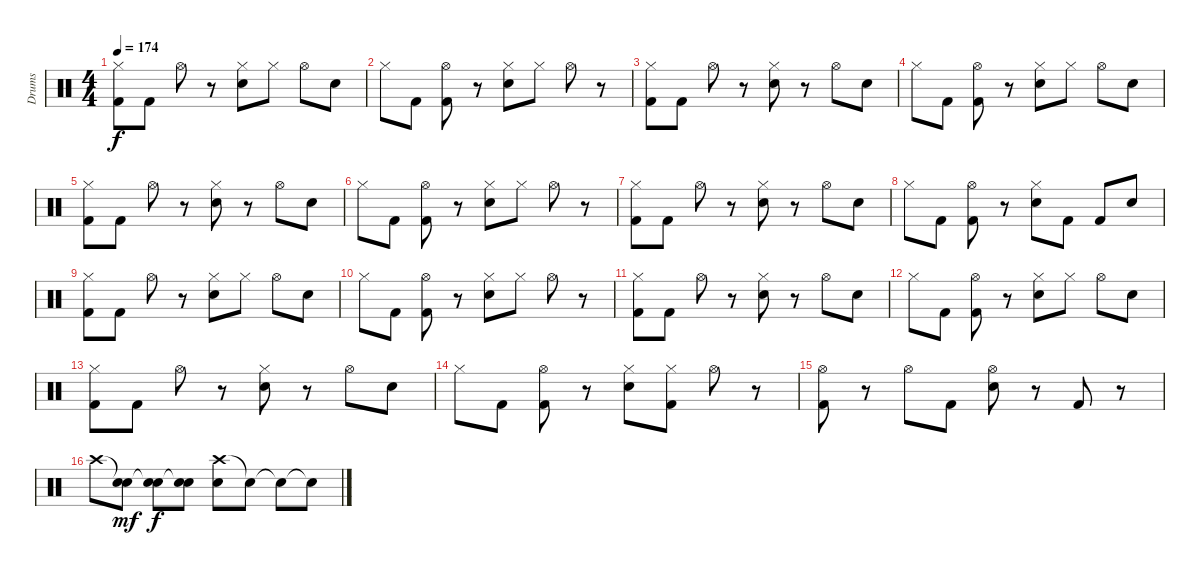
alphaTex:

\track ("Drums" "Drums") {instrument percussion}
\staff {score}
\articulation defaults
\ts (4 4)
\tempo 174
\clef neutral
\ks c
("Hi-Hat (closed)" "Kick (hit) 2").8{dy f} "Kick (hit) 2".8 "Hi-Hat (open)".8 r.8 ("Hi-Hat (closed)" "Electric Snare (hit)").8 "Hi-Hat (closed)".8 "Hi-Hat (open)".8 "Electric Snare (hit)".8 |
"Hi-Hat (closed)".8 "Kick (hit) 2".8 ("Hi-Hat (open)" "Kick (hit) 2").8 r.8 ("Hi-Hat (closed)" "Electric Snare (hit)").8 "Hi-Hat (closed)".8 "Hi-Hat (open)".8 r.8 |
("Hi-Hat (closed)" "Kick (hit) 2").8 "Kick (hit) 2".8 "Hi-Hat (open)".8 r.8 ("Hi-Hat (closed)" "Electric Snare (hit)").8 r.8 "Hi-Hat (open)".8 "Electric Snare (hit)".8 |
"Hi-Hat (closed)".8 "Kick (hit) 2".8 ("Hi-Hat (open)" "Kick (hit) 2").8 r.8 ("Hi-Hat (closed)" "Electric Snare (hit)").8 "Hi-Hat (closed)".8 "Hi-Hat (open)".8 "Electric Snare (hit)".8 |
("Hi-Hat (closed)" "Kick (hit) 2").8 "Kick (hit) 2".8 "Hi-Hat (open)".8 r.8 ("Hi-Hat (closed)" "Electric Snare (hit)").8 r.8 "Hi-Hat (open)".8 "Electric Snare (hit)".8 |
"Hi-Hat (closed)".8 "Kick (hit) 2".8 ("Hi-Hat (open)" "Kick (hit) 2").8 r.8 ("Hi-Hat (closed)" "Electric Snare (hit)").8 "Hi-Hat (closed)".8 "Hi-Hat (open)".8 r.8 |
("Hi-Hat (closed)" "Kick (hit) 2").8 "Kick (hit) 2".8 "Hi-Hat (open)".8 r.8 ("Hi-Hat (closed)" "Electric Snare (hit)").8 r.8 "Hi-Hat (open)".8 "Electric Snare (hit)".8 |
"Hi-Hat (closed)".8 "Kick (hit) 2".8 ("Hi-Hat (open)" "Kick (hit) 2").8 r.8 ("Hi-Hat (closed)" "Electric Snare (hit)").8 "Kick (hit) 2".8 "Kick (hit) 2".8 "Electric Snare (hit)".8 |
("Hi-Hat (closed)" "Kick (hit) 2").8 "Kick (hit) 2".8 "Hi-Hat (open)".8 r.8 ("Hi-Hat (closed)" "Electric Snare (hit)").8 "Hi-Hat (closed)".8 "Hi-Hat (open)".8 "Electric Snare (hit)".8 |
"Hi-Hat (closed)".8 "Kick (hit) 2".8 ("Hi-Hat (open)" "Kick (hit) 2").8 r.8 ("Hi-Hat (closed)" "Electric Snare (hit)").8 "Hi-Hat (closed)".8 "Hi-Hat (open)".8 r.8 |
("Hi-Hat (closed)" "Kick (hit) 2").8 "Kick (hit) 2".8 "Hi-Hat (open)".8 r.8 ("Hi-Hat (closed)" "Electric Snare (hit)").8 r.8 "Hi-Hat (open)".8 "Electric Snare (hit)".8 |
"Hi-Hat (closed)".8 "Kick (hit) 2".8 ("Hi-Hat (open)" "Kick (hit) 2").8 r.8 ("Hi-Hat (closed)" "Electric Snare (hit)").8 "Hi-Hat (closed)".8 "Hi-Hat (open)".8 "Electric Snare (hit)".8 |
("Hi-Hat (closed)" "Kick (hit) 2").8 "Kick (hit) 2".8 "Hi-Hat (open)".8 r.8 ("Hi-Hat (closed)" "Electric Snare (hit)").8 r.8 "Hi-Hat (open)".8 "Electric Snare (hit)".8 |
"Hi-Hat (closed)".8 "Kick (hit) 2".8 ("Hi-Hat (open)" "Kick (hit) 2").8 r.8 ("Hi-Hat (closed)" "Electric Snare (hit)").8 ("Hi-Hat (closed)" "Kick (hit) 2").8 "Hi-Hat (open)".8 r.8 |
("Hi-Hat (open)" "Kick (hit) 2").8 r.8 "Hi-Hat (open)".8 "Kick (hit) 2".8 ("Hi-Hat (open)" "Electric Snare (hit)").8 r.8 "Kick (hit) 2".8 r.8 |
"Crash high (hit)".8 ("Snare (hit)"{t} "Electric Snare (hit)").8{dy mf} ("Snare (hit)"{t} "Electric Snare (hit)").8{dy f} ("Snare (hit)"{t} "Electric Snare (hit)").8 ("Crash high (hit)" "Electric Snare (hit)").8 "Snare (hit)"{t}.8 "Snare (hit)"{t}.8 "Snare (hit)"{t}.8
